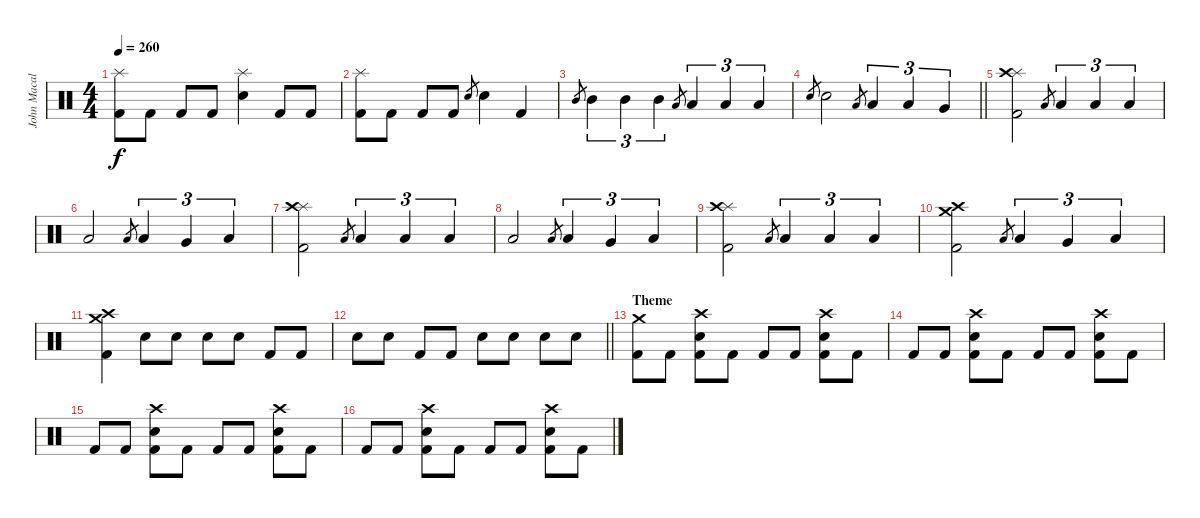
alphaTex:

\track ("John Macaluso" "John Macal") {instrument percussion}
\staff {score}
\articulation defaults
\ts (4 4)
\tempo 260
\clef neutral
\ks c
("Splash (hit)" "Kick (hit) 2").8{dy f} "Kick (hit) 2".8 "Kick (hit) 2".8 "Kick (hit) 2".8 ("Splash (hit)" "Snare (hit) 2").4 "Kick (hit) 2".8 "Kick (hit) 2".8 |
("Splash (hit)" "Kick (hit) 2").8 "Kick (hit) 2".8 "Kick (hit) 2".8 "Kick (hit) 2".8 "Snare (hit) 2".8{gr} "Snare (hit) 2".4 "Kick (hit) 2".4 |
"Mid Tom (hit)".8{gr} "Mid Tom (hit)".4{tu (3 2)} "Mid Tom (hit)".4{tu (3 2)} "Mid Tom (hit)".4{tu (3 2)} "Low Tom (hit)".8{gr} "Low Tom (hit)".4{tu (3 2)} "Low Tom (hit)".4{tu (3 2)} "Low Tom (hit)".4{tu (3 2)} |
\barLineRight lightlight "Snare (hit) 2".8{gr} "Snare (hit) 2".2 "Low Tom (hit)".8{gr} "Low Tom (hit)".4{tu (3 2)} "Low Tom (hit)".4{tu (3 2)} "Very Low Tom (hit)".4{tu (3 2)}
|
("Splash (hit)" "Crash high (hit)" "Kick (hit) 2").2 "Low Tom (hit)".8{gr} "Low Tom (hit)".4{tu (3 2)} "Low Tom (hit)".4{tu (3 2)} "Low Tom (hit)".4{tu (3 2)} |
"Low Tom (hit)".2 "Low Tom (hit)".8{gr} "Low Tom (hit)".4{tu (3 2)} "Very Low Tom (hit)".4{tu (3 2)} "Low Floor Tom (hit)".4{tu (3 2)} |
("Splash (hit)" "Crash high (hit)" "Kick (hit) 2").2 "Low Tom (hit)".8{gr} "Low Tom (hit)".4{tu (3 2)} "Low Tom (hit)".4{tu (3 2)} "Low Tom (hit)".4{tu (3 2)} |
"Low Tom (hit)".2 "Low Tom (hit)".8{gr} "Low Tom (hit)".4{tu (3 2)} "Very Low Tom (hit)".4{tu (3 2)} "Low Floor Tom (hit)".4{tu (3 2)} |
("Splash (hit)" "Crash high (hit)" "Kick (hit) 2").2 "Low Tom (hit)".8{gr} "Low Tom (hit)".4{tu (3 2)} "Low Tom (hit)".4{tu (3 2)} "Low Tom (hit)".4{tu (3 2)} |
("Crash medium (hit)" "Crash high (hit)" "Kick (hit) 2").2 "Low Tom (hit)".8{gr} "Low Tom (hit)".4{tu (3 2)} "Very Low Tom (hit)".4{tu (3 2)} "Low Floor Tom (hit)".4{tu (3 2)} |
("Crash high (hit)" "Crash medium (hit)" "Kick (hit) 2").4 "Snare (hit) 2".8 "Snare (hit) 2".8 "Snare (hit) 2".8 "Snare (hit) 2".8 "Kick (hit) 2".8 "Kick (hit) 2".8 |
\barLineRight lightlight "Snare (hit) 2".8 "Snare (hit) 2".8 "Kick (hit) 2".8 "Kick (hit) 2".8 "Snare (hit) 2".8 "Snare (hit) 2".8 "Snare (hit) 2".8 "Snare (hit) 2".8
|
\section ("" "Theme")
("Crash medium (hit)" "Kick (hit) 2").8 "Kick (hit) 2".8 ("Crash high (hit)" "Snare (hit) 2" "Kick (hit) 2").8 "Kick (hit) 2".8 "Kick (hit) 2".8 "Kick (hit) 2".8 ("Crash high (hit)" "Snare (hit) 2" "Kick (hit) 2").8 "Kick (hit) 2".8 |
"Kick (hit) 2".8 "Kick (hit) 2".8 ("Crash high (hit)" "Snare (hit) 2" "Kick (hit) 2").8 "Kick (hit) 2".8 "Kick (hit) 2".8 "Kick (hit) 2".8 ("Crash high (hit)" "Snare (hit) 2" "Kick (hit) 2").8 "Kick (hit) 2".8 |
"Kick (hit) 2".8 "Kick (hit) 2".8 ("Crash high (hit)" "Snare (hit) 2" "Kick (hit) 2").8 "Kick (hit) 2".8 "Kick (hit) 2".8 "Kick (hit) 2".8 ("Crash high (hit)" "Snare (hit) 2" "Kick (hit) 2").8 "Kick (hit) 2".8 |
"Kick (hit) 2".8 "Kick (hit) 2".8 ("Crash high (hit)" "Snare (hit) 2" "Kick (hit) 2").8 "Kick (hit) 2".8 "Kick (hit) 2".8 "Kick (hit) 2".8 ("Crash high (hit)" "Snare (hit) 2" "Kick (hit) 2").8 "Kick (hit) 2".8
